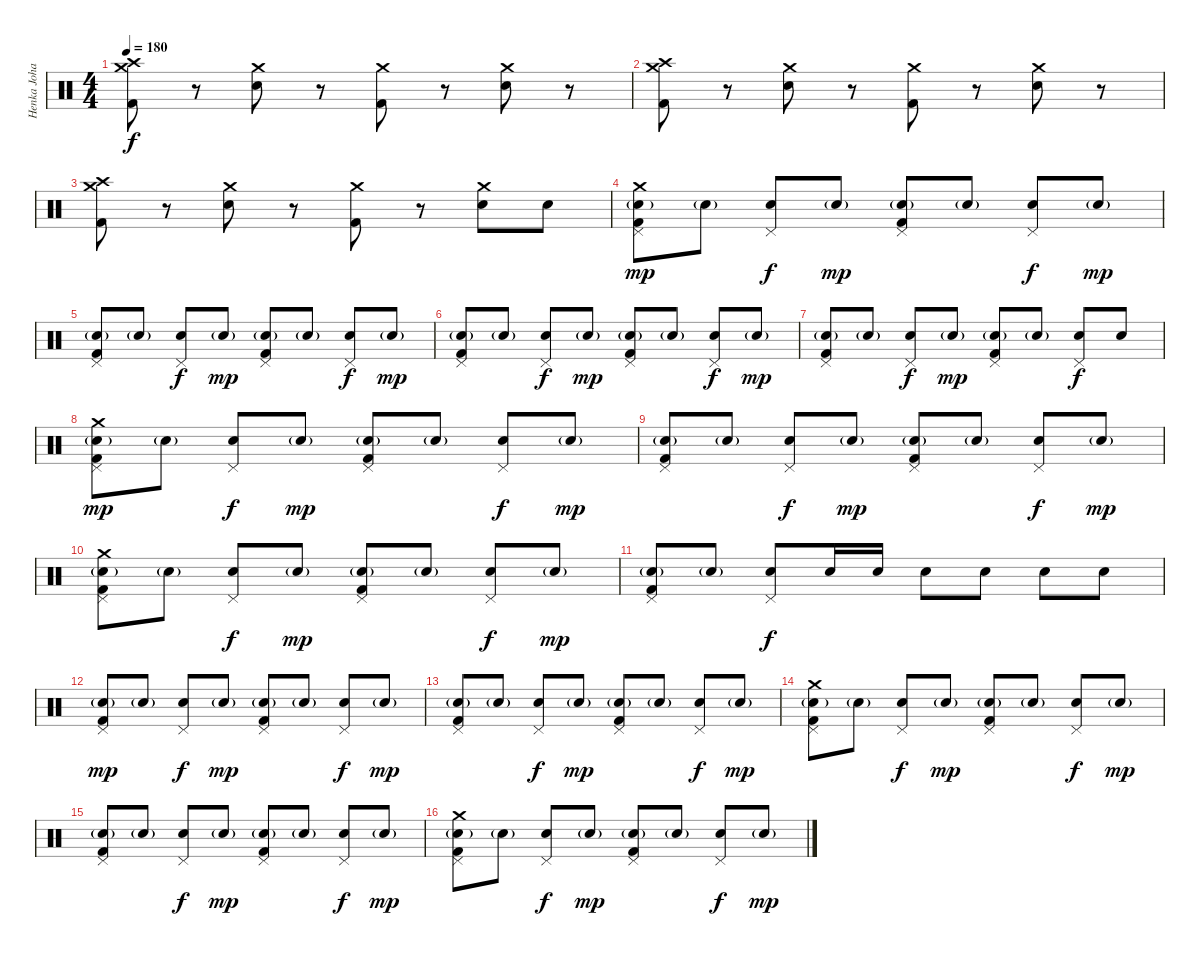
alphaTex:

\track ("Henka Johansson" "Henka Joha") {instrument percussion}
\staff {score}
\articulation defaults
\ts (4 4)
\tempo 180
\clef neutral
\ks c
("Crash medium (hit)" "Crash high (hit)" "Kick (hit) 2").8{dy f} r.8 ("Crash medium (hit)" "Snare (hit) 2").8 r.8 ("Crash medium (hit)" "Kick (hit) 2").8 r.8 ("Crash medium (hit)" "Snare (hit) 2").8 r.8 |
("Crash medium (hit)" "Crash high (hit)" "Kick (hit) 2").8 r.8 ("Crash medium (hit)" "Snare (hit) 2").8 r.8 ("Crash medium (hit)" "Kick (hit) 2").8 r.8 ("Crash medium (hit)" "Snare (hit) 2").8 r.8 |
("Crash medium (hit)" "Crash high (hit)" "Kick (hit) 2").8 r.8 ("Crash medium (hit)" "Snare (hit) 2").8 r.8 ("Crash medium (hit)" "Kick (hit) 2").8 r.8 ("Crash medium (hit)" "Snare (hit) 2").8 "Snare (hit) 2".8 |
("Crash medium (hit)" "Pedal Hi-Hat (hit)" "Snare (hit) 2"{g} "Kick (hit) 2").8{dy mp} "Snare (hit) 2"{g}.8 ("Pedal Hi-Hat (hit)" "Snare (hit) 2").8{dy f} "Snare (hit) 2"{g}.8{dy mp} ("Pedal Hi-Hat (hit)" "Snare (hit) 2"{g} "Kick (hit) 2").8 "Snare (hit) 2"{g}.8 ("Pedal Hi-Hat (hit)" "Snare (hit) 2").8{dy f} "Snare (hit) 2"{g}.8{dy mp} |
("Pedal Hi-Hat (hit)" "Snare (hit) 2"{g} "Kick (hit) 2").8 "Snare (hit) 2"{g}.8 ("Pedal Hi-Hat (hit)" "Snare (hit) 2").8{dy f} "Snare (hit) 2"{g}.8{dy mp} ("Pedal Hi-Hat (hit)" "Snare (hit) 2"{g} "Kick (hit) 2").8 "Snare (hit) 2"{g}.8 ("Pedal Hi-Hat (hit)" "Snare (hit) 2").8{dy f} "Snare (hit) 2"{g}.8{dy mp} |
("Pedal Hi-Hat (hit)" "Snare (hit) 2"{g} "Kick (hit) 2").8 "Snare (hit) 2"{g}.8 ("Pedal Hi-Hat (hit)" "Snare (hit) 2").8{dy f} "Snare (hit) 2"{g}.8{dy mp} ("Pedal Hi-Hat (hit)" "Snare (hit) 2"{g} "Kick (hit) 2").8 "Snare (hit) 2"{g}.8 ("Pedal Hi-Hat (hit)" "Snare (hit) 2").8{dy f} "Snare (hit) 2"{g}.8{dy mp} |
("Pedal Hi-Hat (hit)" "Snare (hit) 2"{g} "Kick (hit) 2").8 "Snare (hit) 2"{g}.8 ("Pedal Hi-Hat (hit)" "Snare (hit) 2").8{dy f} "Snare (hit) 2"{g}.8{dy mp} ("Pedal Hi-Hat (hit)" "Snare (hit) 2"{g} "Kick (hit) 2").8 "Snare (hit) 2"{g}.8 ("Pedal Hi-Hat (hit)" "Snare (hit) 2").8{dy f} "Snare (hit) 2".8 |
("Crash medium (hit)" "Pedal Hi-Hat (hit)" "Snare (hit) 2"{g} "Kick (hit) 2").8{dy mp} "Snare (hit) 2"{g}.8 ("Pedal Hi-Hat (hit)" "Snare (hit) 2").8{dy f} "Snare (hit) 2"{g}.8{dy mp} ("Pedal Hi-Hat (hit)" "Snare (hit) 2"{g} "Kick (hit) 2").8 "Snare (hit) 2"{g}.8 ("Pedal Hi-Hat (hit)" "Snare (hit) 2").8{dy f} "Snare (hit) 2"{g}.8{dy mp} |
("Pedal Hi-Hat (hit)" "Snare (hit) 2"{g} "Kick (hit) 2").8 "Snare (hit) 2"{g}.8 ("Pedal Hi-Hat (hit)" "Snare (hit) 2").8{dy f} "Snare (hit) 2"{g}.8{dy mp} ("Pedal Hi-Hat (hit)" "Snare (hit) 2"{g} "Kick (hit) 2").8 "Snare (hit) 2"{g}.8 ("Pedal Hi-Hat (hit)" "Snare (hit) 2").8{dy f} "Snare (hit) 2"{g}.8{dy mp} |
("Crash medium (hit)" "Pedal Hi-Hat (hit)" "Snare (hit) 2"{g} "Kick (hit) 2").8 "Snare (hit) 2"{g}.8 ("Pedal Hi-Hat (hit)" "Snare (hit) 2").8{dy f} "Snare (hit) 2"{g}.8{dy mp} ("Pedal Hi-Hat (hit)" "Snare (hit) 2"{g} "Kick (hit) 2").8 "Snare (hit) 2"{g}.8 ("Pedal Hi-Hat (hit)" "Snare (hit) 2").8{dy f} "Snare (hit) 2"{g}.8{dy mp} |
("Pedal Hi-Hat (hit)" "Snare (hit) 2"{g} "Kick (hit) 2").8 "Snare (hit) 2"{g}.8 ("Pedal Hi-Hat (hit)" "Snare (hit) 2").8{dy f} "Snare (hit) 2".16 "Snare (hit) 2".16 "Snare (hit) 2".8 "Snare (hit) 2".8 "Snare (hit) 2".8 "Snare (hit) 2".8 |
("Pedal Hi-Hat (hit)" "Snare (hit) 2"{g} "Kick (hit) 2").8{dy mp} "Snare (hit) 2"{g}.8 ("Pedal Hi-Hat (hit)" "Snare (hit) 2").8{dy f} "Snare (hit) 2"{g}.8{dy mp} ("Pedal Hi-Hat (hit)" "Snare (hit) 2"{g} "Kick (hit) 2").8 "Snare (hit) 2"{g}.8 ("Pedal Hi-Hat (hit)" "Snare (hit) 2").8{dy f} "Snare (hit) 2"{g}.8{dy mp} |
("Pedal Hi-Hat (hit)" "Snare (hit) 2"{g} "Kick (hit) 2").8 "Snare (hit) 2"{g}.8 ("Pedal Hi-Hat (hit)" "Snare (hit) 2").8{dy f} "Snare (hit) 2"{g}.8{dy mp} ("Pedal Hi-Hat (hit)" "Snare (hit) 2"{g} "Kick (hit) 2").8 "Snare (hit) 2"{g}.8 ("Pedal Hi-Hat (hit)" "Snare (hit) 2").8{dy f} "Snare (hit) 2"{g}.8{dy mp} |
("Crash medium (hit)" "Pedal Hi-Hat (hit)" "Snare (hit) 2"{g} "Kick (hit) 2").8 "Snare (hit) 2"{g}.8 ("Pedal Hi-Hat (hit)" "Snare (hit) 2").8{dy f} "Snare (hit) 2"{g}.8{dy mp} ("Pedal Hi-Hat (hit)" "Snare (hit) 2"{g} "Kick (hit) 2").8 "Snare (hit) 2"{g}.8 ("Pedal Hi-Hat (hit)" "Snare (hit) 2").8{dy f} "Snare (hit) 2"{g}.8{dy mp} |
("Pedal Hi-Hat (hit)" "Snare (hit) 2"{g} "Kick (hit) 2").8 "Snare (hit) 2"{g}.8 ("Pedal Hi-Hat (hit)" "Snare (hit) 2").8{dy f} "Snare (hit) 2"{g}.8{dy mp} ("Pedal Hi-Hat (hit)" "Snare (hit) 2"{g} "Kick (hit) 2").8 "Snare (hit) 2"{g}.8 ("Pedal Hi-Hat (hit)" "Snare (hit) 2").8{dy f} "Snare (hit) 2"{g}.8{dy mp} |
("Crash medium (hit)" "Pedal Hi-Hat (hit)" "Snare (hit) 2"{g} "Kick (hit) 2").8 "Snare (hit) 2"{g}.8 ("Pedal Hi-Hat (hit)" "Snare (hit) 2").8{dy f} "Snare (hit) 2"{g}.8{dy mp} ("Pedal Hi-Hat (hit)" "Snare (hit) 2"{g} "Kick (hit) 2").8 "Snare (hit) 2"{g}.8 ("Pedal Hi-Hat (hit)" "Snare (hit) 2").8{dy f} "Snare (hit) 2"{g}.8{dy mp}
